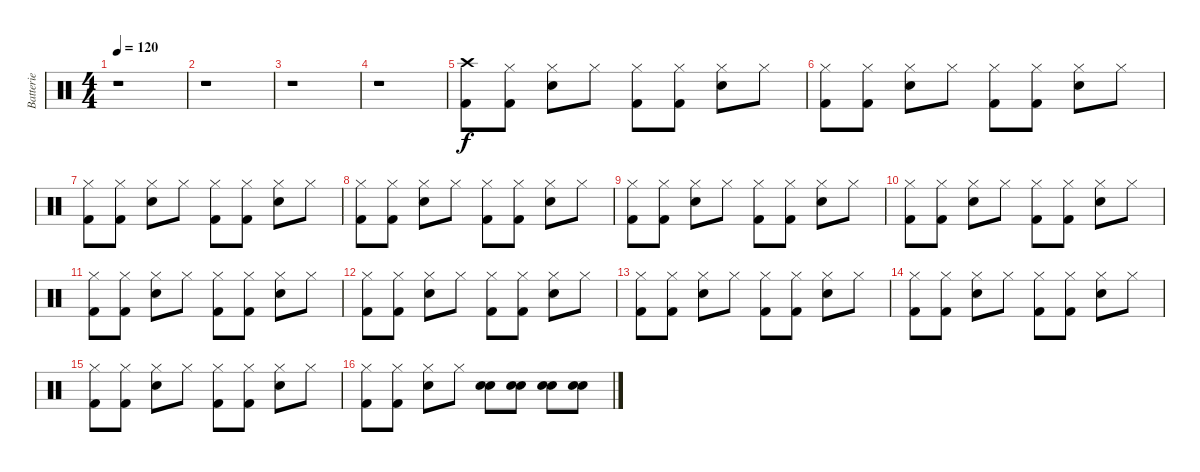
\track ("Batterie" "Batterie") {instrument percussion}
\staff {score}
\articulation defaults
\ts (4 4)
\tempo 120
\clef neutral
\ks c
r.1{dy f} |
r.1 |
r.1 |
r.1 |
("Crash high (hit)" "Kick (hit) 2").8 ("Hi-Hat (closed)" "Kick (hit) 2").8 ("Hi-Hat (closed)" "Electric Snare (hit)").8 "Hi-Hat (closed)".8 ("Hi-Hat (closed)" "Kick (hit) 2").8 ("Hi-Hat (closed)" "Kick (hit) 2").8 ("Hi-Hat (closed)" "Electric Snare (hit)").8 "Hi-Hat (closed)".8 |
("Hi-Hat (closed)" "Kick (hit) 2").8 ("Hi-Hat (closed)" "Kick (hit) 2").8 ("Hi-Hat (closed)" "Electric Snare (hit)").8 "Hi-Hat (closed)".8 ("Hi-Hat (closed)" "Kick (hit) 2").8 ("Hi-Hat (closed)" "Kick (hit) 2").8 ("Hi-Hat (closed)" "Electric Snare (hit)").8 "Hi-Hat (closed)".8 |
("Hi-Hat (closed)" "Kick (hit) 2").8 ("Hi-Hat (closed)" "Kick (hit) 2").8 ("Hi-Hat (closed)" "Electric Snare (hit)").8 "Hi-Hat (closed)".8 ("Hi-Hat (closed)" "Kick (hit) 2").8 ("Hi-Hat (closed)" "Kick (hit) 2").8 ("Hi-Hat (closed)" "Electric Snare (hit)").8 "Hi-Hat (closed)".8 |
("Hi-Hat (closed)" "Kick (hit) 2").8 ("Hi-Hat (closed)" "Kick (hit) 2").8 ("Hi-Hat (closed)" "Electric Snare (hit)").8 "Hi-Hat (closed)".8 ("Hi-Hat (closed)" "Kick (hit) 2").8 ("Hi-Hat (closed)" "Kick (hit) 2").8 ("Hi-Hat (closed)" "Electric Snare (hit)").8 "Hi-Hat (closed)".8 |
("Hi-Hat (closed)" "Kick (hit) 2").8 ("Hi-Hat (closed)" "Kick (hit) 2").8 ("Hi-Hat (closed)" "Electric Snare (hit)").8 "Hi-Hat (closed)".8 ("Hi-Hat (closed)" "Kick (hit) 2").8 ("Hi-Hat (closed)" "Kick (hit) 2").8 ("Hi-Hat (closed)" "Electric Snare (hit)").8 "Hi-Hat (closed)".8 |
("Hi-Hat (closed)" "Kick (hit) 2").8 ("Hi-Hat (closed)" "Kick (hit) 2").8 ("Hi-Hat (closed)" "Electric Snare (hit)").8 "Hi-Hat (closed)".8 ("Hi-Hat (closed)" "Kick (hit) 2").8 ("Hi-Hat (closed)" "Kick (hit) 2").8 ("Hi-Hat (closed)" "Electric Snare (hit)").8 "Hi-Hat (closed)".8 |
("Hi-Hat (closed)" "Kick (hit) 2").8 ("Hi-Hat (closed)" "Kick (hit) 2").8 ("Hi-Hat (closed)" "Electric Snare (hit)").8 "Hi-Hat (closed)".8 ("Hi-Hat (closed)" "Kick (hit) 2").8 ("Hi-Hat (closed)" "Kick (hit) 2").8 ("Hi-Hat (closed)" "Electric Snare (hit)").8 "Hi-Hat (closed)".8 |
("Hi-Hat (closed)" "Kick (hit) 2").8 ("Hi-Hat (closed)" "Kick (hit) 2").8 ("Hi-Hat (closed)" "Electric Snare (hit)").8 "Hi-Hat (closed)".8 ("Hi-Hat (closed)" "Kick (hit) 2").8 ("Hi-Hat (closed)" "Kick (hit) 2").8 ("Hi-Hat (closed)" "Electric Snare (hit)").8 "Hi-Hat (closed)".8 |
("Hi-Hat (closed)" "Kick (hit) 2").8 ("Hi-Hat (closed)" "Kick (hit) 2").8 ("Hi-Hat (closed)" "Electric Snare (hit)").8 "Hi-Hat (closed)".8 ("Hi-Hat (closed)" "Kick (hit) 2").8 ("Hi-Hat (closed)" "Kick (hit) 2").8 ("Hi-Hat (closed)" "Electric Snare (hit)").8 "Hi-Hat (closed)".8 |
("Hi-Hat (closed)" "Kick (hit) 2").8 ("Hi-Hat (closed)" "Kick (hit) 2").8 ("Hi-Hat (closed)" "Electric Snare (hit)").8 "Hi-Hat (closed)".8 ("Hi-Hat (closed)" "Kick (hit) 2").8 ("Hi-Hat (closed)" "Kick (hit) 2").8 ("Hi-Hat (closed)" "Electric Snare (hit)").8 "Hi-Hat (closed)".8 |
("Hi-Hat (closed)" "Kick (hit) 2").8 ("Hi-Hat (closed)" "Kick (hit) 2").8 ("Hi-Hat (closed)" "Electric Snare (hit)").8 "Hi-Hat (closed)".8 ("Hi-Hat (closed)" "Kick (hit) 2").8 ("Hi-Hat (closed)" "Kick (hit) 2").8 ("Hi-Hat (closed)" "Electric Snare (hit)").8 "Hi-Hat (closed)".8 |
("Hi-Hat (closed)" "Kick (hit) 2").8 ("Hi-Hat (closed)" "Kick (hit) 2").8 ("Hi-Hat (closed)" "Electric Snare (hit)").8 "Hi-Hat (closed)".8 ("Electric Snare (hit)" "Electric Snare (hit)").8 ("Electric Snare (hit)" "Electric Snare (hit)").8 ("Electric Snare (hit)" "Electric Snare (hit)").8 ("Electric Snare (hit)" "Electric Snare (hit)").8
